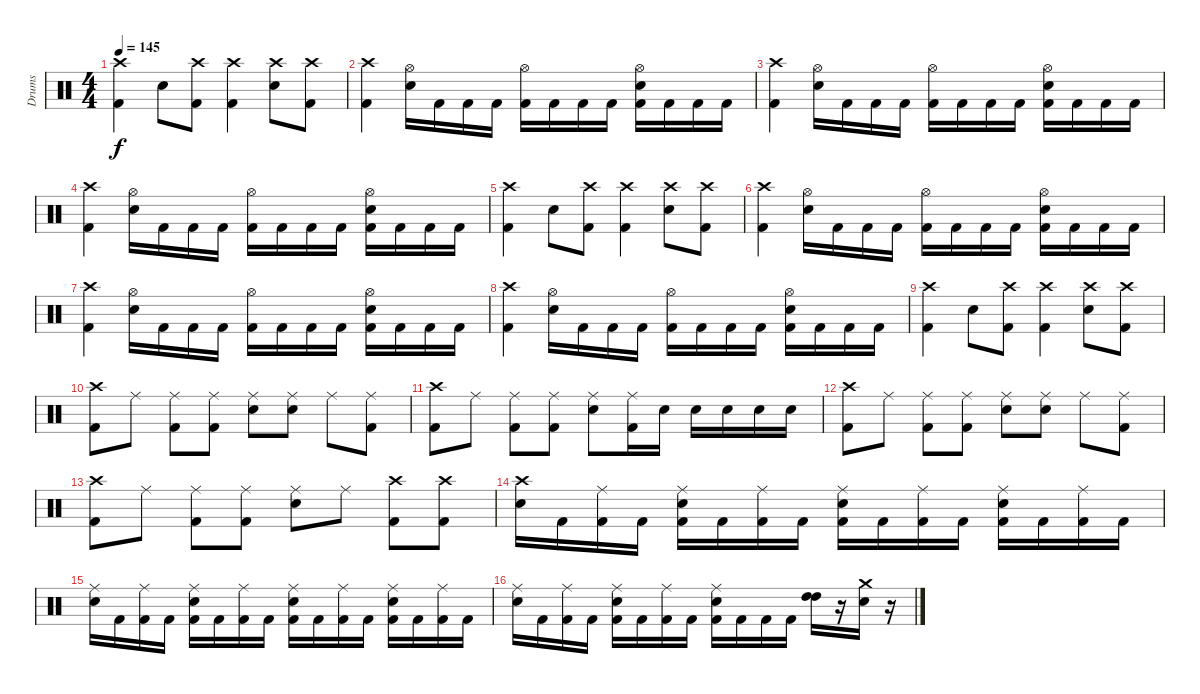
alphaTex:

\track ("Drums" "Drums") {instrument percussion}
\staff {score}
\articulation defaults
\ts (4 4)
\tempo 145
\clef neutral
\ks c
("Crash high (hit)" "Kick (hit) 2").4{dy f} "Snare (hit) 2".8 ("Crash high (hit)" "Kick (hit) 2").8 ("Crash high (hit)" "Kick (hit) 2").4 ("Crash high (hit)" "Snare (hit) 2").8 ("Crash high (hit)" "Kick (hit) 2").8 |
("Crash high (hit)" "Kick (hit) 2").4 ("Hi-Hat (open)" "Snare (hit) 2").16 "Kick (hit) 2".16 "Kick (hit) 2".16 "Kick (hit) 2".16 ("Hi-Hat (open)" "Kick (hit) 2").16 "Kick (hit) 2".16 "Kick (hit) 2".16 "Kick (hit) 2".16 ("Hi-Hat (open)" "Snare (hit) 2" "Kick (hit) 2").16 "Kick (hit) 2".16 "Kick (hit) 2".16 "Kick (hit) 2".16 |
("Crash high (hit)" "Kick (hit) 2").4 ("Hi-Hat (open)" "Snare (hit) 2").16 "Kick (hit) 2".16 "Kick (hit) 2".16 "Kick (hit) 2".16 ("Hi-Hat (open)" "Kick (hit) 2").16 "Kick (hit) 2".16 "Kick (hit) 2".16 "Kick (hit) 2".16 ("Hi-Hat (open)" "Snare (hit) 2" "Kick (hit) 2").16 "Kick (hit) 2".16 "Kick (hit) 2".16 "Kick (hit) 2".16 |
("Crash high (hit)" "Kick (hit) 2").4 ("Hi-Hat (open)" "Snare (hit) 2").16 "Kick (hit) 2".16 "Kick (hit) 2".16 "Kick (hit) 2".16 ("Hi-Hat (open)" "Kick (hit) 2").16 "Kick (hit) 2".16 "Kick (hit) 2".16 "Kick (hit) 2".16 ("Hi-Hat (open)" "Snare (hit) 2" "Kick (hit) 2").16 "Kick (hit) 2".16 "Kick (hit) 2".16 "Kick (hit) 2".16 |
("Crash high (hit)" "Kick (hit) 2").4 "Snare (hit) 2".8 ("Crash high (hit)" "Kick (hit) 2").8 ("Crash high (hit)" "Kick (hit) 2").4 ("Crash high (hit)" "Snare (hit) 2").8 ("Crash high (hit)" "Kick (hit) 2").8 |
("Crash high (hit)" "Kick (hit) 2").4 ("Hi-Hat (open)" "Snare (hit) 2").16 "Kick (hit) 2".16 "Kick (hit) 2".16 "Kick (hit) 2".16 ("Hi-Hat (open)" "Kick (hit) 2").16 "Kick (hit) 2".16 "Kick (hit) 2".16 "Kick (hit) 2".16 ("Hi-Hat (open)" "Snare (hit) 2" "Kick (hit) 2").16 "Kick (hit) 2".16 "Kick (hit) 2".16 "Kick (hit) 2".16 |
("Crash high (hit)" "Kick (hit) 2").4 ("Hi-Hat (open)" "Snare (hit) 2").16 "Kick (hit) 2".16 "Kick (hit) 2".16 "Kick (hit) 2".16 ("Hi-Hat (open)" "Kick (hit) 2").16 "Kick (hit) 2".16 "Kick (hit) 2".16 "Kick (hit) 2".16 ("Hi-Hat (open)" "Snare (hit) 2" "Kick (hit) 2").16 "Kick (hit) 2".16 "Kick (hit) 2".16 "Kick (hit) 2".16 |
("Crash high (hit)" "Kick (hit) 2").4 ("Hi-Hat (open)" "Snare (hit) 2").16 "Kick (hit) 2".16 "Kick (hit) 2".16 "Kick (hit) 2".16 ("Hi-Hat (open)" "Kick (hit) 2").16 "Kick (hit) 2".16 "Kick (hit) 2".16 "Kick (hit) 2".16 ("Hi-Hat (open)" "Snare (hit) 2" "Kick (hit) 2").16 "Kick (hit) 2".16 "Kick (hit) 2".16 "Kick (hit) 2".16 |
("Crash high (hit)" "Kick (hit) 2").4 "Snare (hit) 2".8 ("Crash high (hit)" "Kick (hit) 2").8 ("Crash high (hit)" "Kick (hit) 2").4 ("Crash high (hit)" "Snare (hit) 2").8 ("Crash high (hit)" "Kick (hit) 2").8 |
("Crash high (hit)" "Kick (hit) 2").8 "Ride (middle)".8 ("Ride (middle)" "Kick (hit) 2").8 ("Ride (middle)" "Kick (hit) 2").8 ("Ride (middle)" "Snare (hit) 2").8 ("Ride (middle)" "Snare (hit) 2").8 "Ride (middle)".8 ("Ride (middle)" "Kick (hit) 2").8 |
("Crash high (hit)" "Kick (hit) 2").8 "Ride (middle)".8 ("Ride (middle)" "Kick (hit) 2").8 ("Ride (middle)" "Kick (hit) 2").8 ("Ride (middle)" "Snare (hit) 2").8 ("Ride (middle)" "Kick (hit) 2").16 "Snare (hit) 2".16 "Snare (hit) 2".16 "Snare (hit) 2".16 "Snare (hit) 2".16 "Snare (hit) 2".16 |
("Crash high (hit)" "Kick (hit) 2").8 "Ride (middle)".8 ("Ride (middle)" "Kick (hit) 2").8 ("Ride (middle)" "Kick (hit) 2").8 ("Ride (middle)" "Snare (hit) 2").8 ("Ride (middle)" "Snare (hit) 2").8 "Ride (middle)".8 ("Ride (middle)" "Kick (hit) 2").8 |
("Crash high (hit)" "Kick (hit) 2").8 "Ride (middle)".8 ("Ride (middle)" "Kick (hit) 2").8 ("Ride (middle)" "Kick (hit) 2").8 ("Ride (middle)" "Snare (hit) 2").8 "Ride (middle)".8 ("Crash high (hit)" "Kick (hit) 2").8 ("Crash high (hit)" "Kick (hit) 2").8 |
("Crash high (hit)" "Snare (hit) 2").16 "Kick (hit) 2".16 ("Ride (middle)" "Kick (hit) 2").16 "Kick (hit) 2".16 ("Ride (middle)" "Snare (hit) 2" "Kick (hit) 2").16 "Kick (hit) 2".16 ("Ride (middle)" "Kick (hit) 2").16 "Kick (hit) 2".16 ("Ride (middle)" "Snare (hit) 2" "Kick (hit) 2").16 "Kick (hit) 2".16 ("Ride (middle)" "Kick (hit) 2").16 "Kick (hit) 2".16 ("Ride (middle)" "Snare (hit) 2" "Kick (hit) 2").16 "Kick (hit) 2".16 ("Ride (middle)" "Kick (hit) 2").16 "Kick (hit) 2".16 |
("Ride (middle)" "Snare (hit) 2").16 "Kick (hit) 2".16 ("Ride (middle)" "Kick (hit) 2").16 "Kick (hit) 2".16 ("Ride (middle)" "Snare (hit) 2" "Kick (hit) 2").16 "Kick (hit) 2".16 ("Ride (middle)" "Kick (hit) 2").16 "Kick (hit) 2".16 ("Ride (middle)" "Snare (hit) 2" "Kick (hit) 2").16 "Kick (hit) 2".16 ("Ride (middle)" "Kick (hit) 2").16 "Kick (hit) 2".16 ("Ride (middle)" "Snare (hit) 2" "Kick (hit) 2").16 "Kick (hit) 2".16 ("Ride (middle)" "Kick (hit) 2").16 "Kick (hit) 2".16 |
("Ride (middle)" "Snare (hit) 2").16 "Kick (hit) 2".16 ("Ride (middle)" "Kick (hit) 2").16 "Kick (hit) 2".16 ("Ride (middle)" "Snare (hit) 2" "Kick (hit) 2").16 "Kick (hit) 2".16 ("Ride (middle)" "Kick (hit) 2").16 "Kick (hit) 2".16 ("Ride (middle)" "Snare (hit) 2" "Kick (hit) 2").16 "Kick (hit) 2".16 "Kick (hit) 2".16 "Kick (hit) 2".16 ("High Tom (hit)" "High Tom (hit)").16 r.16 ("Crash medium (hit)" "Snare (hit) 2").16 r.16
